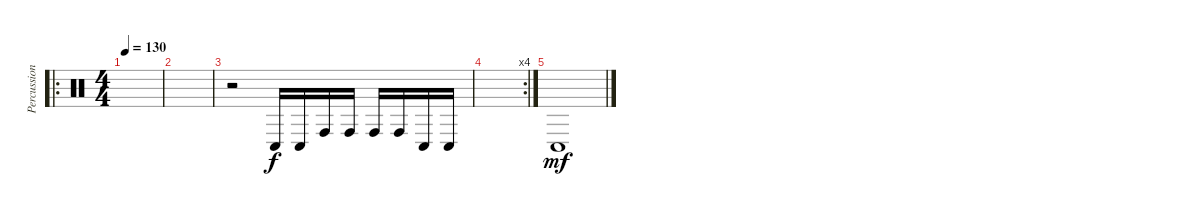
\track ("Percussion" "Percussion") {instrument percussion}
\staff {score}
\articulation defaults
\ro
\ts (4 4)
\tempo 130
\clef neutral
\ks c
|
|
r.2 "Conga low (hit)".16 "Conga low (hit)".16 "Conga high (hit)".16 "Conga high (hit)".16 "Conga high (hit)".16 "Conga high (hit)".16 "Conga low (hit)".16 "Conga low (hit)".16 |
\rc 4
|
"Conga low (hit)".1{dy mf}
